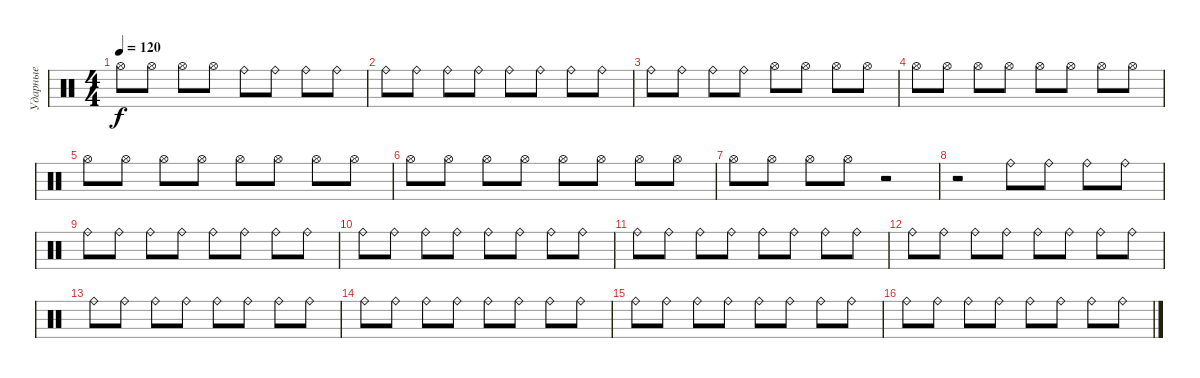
\track ("Ударные" "Ударные") {instrument percussion}
\staff {score}
\articulation defaults
\ts (4 4)
\tempo 120
\clef neutral
\ks c "Hi-Hat (open)".8{dy f} "Hi-Hat (open)".8 "Hi-Hat (open)".8 "Hi-Hat (open)".8 "Ride (bell)".8 "Ride (bell)".8 "Ride (bell)".8 "Ride (bell)".8
|
"Ride (bell)".8 "Ride (bell)".8 "Ride (bell)".8 "Ride (bell)".8 "Ride (bell)".8 "Ride (bell)".8 "Ride (bell)".8 "Ride (bell)".8 |
"Ride (bell)".8 "Ride (bell)".8 "Ride (bell)".8 "Ride (bell)".8 "Hi-Hat (open)".8 "Hi-Hat (open)".8 "Hi-Hat (open)".8 "Hi-Hat (open)".8 |
"Hi-Hat (open)".8 "Hi-Hat (open)".8 "Hi-Hat (open)".8 "Hi-Hat (open)".8 "Hi-Hat (open)".8 "Hi-Hat (open)".8 "Hi-Hat (open)".8 "Hi-Hat (open)".8 |
"Hi-Hat (open)".8 "Hi-Hat (open)".8 "Hi-Hat (open)".8 "Hi-Hat (open)".8 "Hi-Hat (open)".8 "Hi-Hat (open)".8 "Hi-Hat (open)".8 "Hi-Hat (open)".8 |
"Hi-Hat (open)".8 "Hi-Hat (open)".8 "Hi-Hat (open)".8 "Hi-Hat (open)".8 "Hi-Hat (open)".8 "Hi-Hat (open)".8 "Hi-Hat (open)".8 "Hi-Hat (open)".8 |
"Hi-Hat (open)".8 "Hi-Hat (open)".8 "Hi-Hat (open)".8 "Hi-Hat (open)".8 r.2 |
r.2 "Ride (bell)".8 "Ride (bell)".8 "Ride (bell)".8 "Ride (bell)".8 |
"Ride (bell)".8 "Ride (bell)".8 "Ride (bell)".8 "Ride (bell)".8 "Ride (bell)".8 "Ride (bell)".8 "Ride (bell)".8 "Ride (bell)".8 |
"Ride (bell)".8 "Ride (bell)".8 "Ride (bell)".8 "Ride (bell)".8 "Ride (bell)".8 "Ride (bell)".8 "Ride (bell)".8 "Ride (bell)".8 |
"Ride (bell)".8 "Ride (bell)".8 "Ride (bell)".8 "Ride (bell)".8 "Ride (bell)".8 "Ride (bell)".8 "Ride (bell)".8 "Ride (bell)".8 |
"Ride (bell)".8 "Ride (bell)".8 "Ride (bell)".8 "Ride (bell)".8 "Ride (bell)".8 "Ride (bell)".8 "Ride (bell)".8 "Ride (bell)".8 |
"Ride (bell)".8 "Ride (bell)".8 "Ride (bell)".8 "Ride (bell)".8 "Ride (bell)".8 "Ride (bell)".8 "Ride (bell)".8 "Ride (bell)".8 |
"Ride (bell)".8 "Ride (bell)".8 "Ride (bell)".8 "Ride (bell)".8 "Ride (bell)".8 "Ride (bell)".8 "Ride (bell)".8 "Ride (bell)".8 |
"Ride (bell)".8 "Ride (bell)".8 "Ride (bell)".8 "Ride (bell)".8 "Ride (bell)".8 "Ride (bell)".8 "Ride (bell)".8 "Ride (bell)".8 |
"Ride (bell)".8 "Ride (bell)".8 "Ride (bell)".8 "Ride (bell)".8 "Ride (bell)".8 "Ride (bell)".8 "Ride (bell)".8 "Ride (bell)".8
